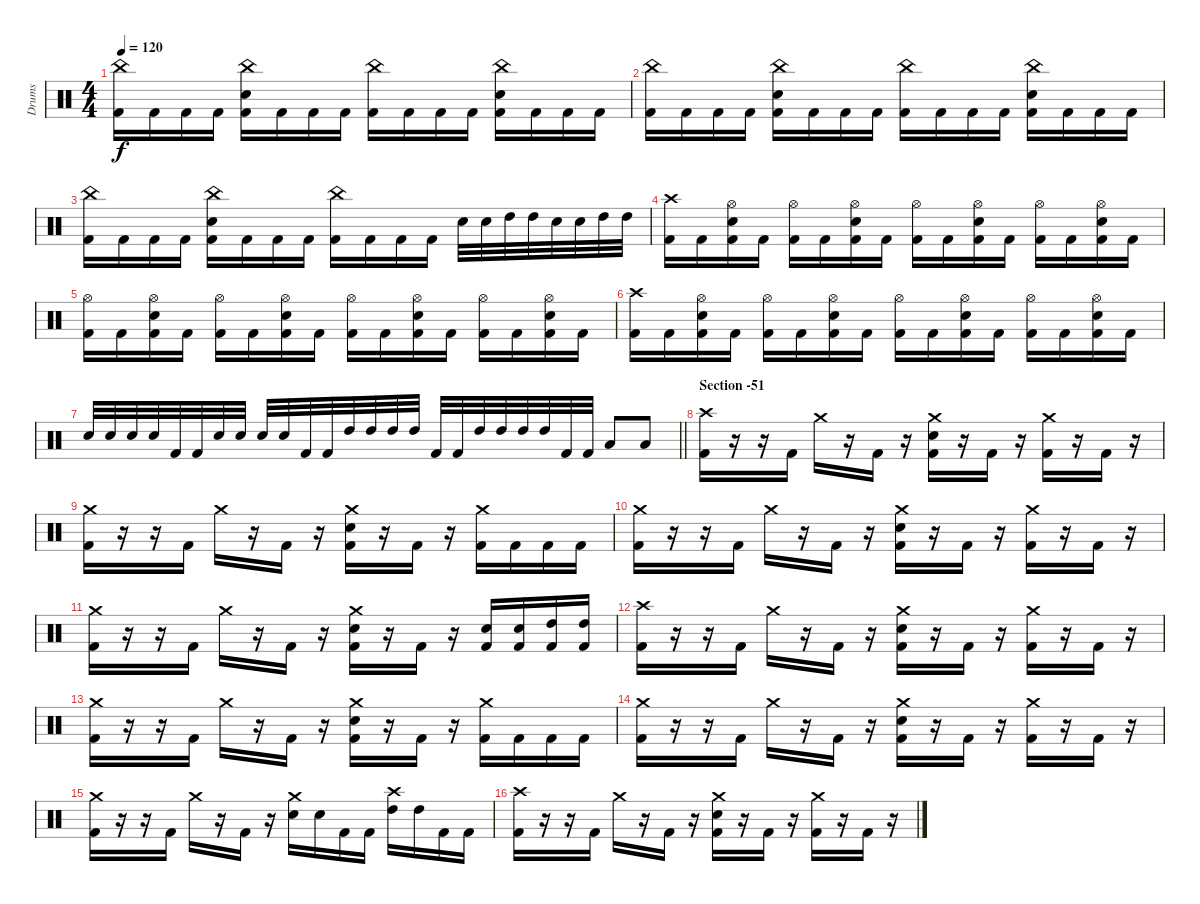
\track ("Drums" "Drums") {instrument percussion}
\staff {score}
\articulation defaults
\ts (4 4)
\tempo 120
\clef neutral
\ks c
("China (hit)" "Kick (hit) 2").16{dy f} "Kick (hit) 2".16 "Kick (hit) 2".16 "Kick (hit) 2".16 ("China (hit)" "Snare (hit) 2" "Kick (hit) 2").16 "Kick (hit) 2".16 "Kick (hit) 2".16 "Kick (hit) 2".16 ("China (hit)" "Kick (hit) 2").16 "Kick (hit) 2".16 "Kick (hit) 2".16 "Kick (hit) 2".16 ("China (hit)" "Snare (hit) 2" "Kick (hit) 2").16 "Kick (hit) 2".16 "Kick (hit) 2".16 "Kick (hit) 2".16 |
("China (hit)" "Kick (hit) 2").16 "Kick (hit) 2".16 "Kick (hit) 2".16 "Kick (hit) 2".16 ("China (hit)" "Snare (hit) 2" "Kick (hit) 2").16 "Kick (hit) 2".16 "Kick (hit) 2".16 "Kick (hit) 2".16 ("China (hit)" "Kick (hit) 2").16 "Kick (hit) 2".16 "Kick (hit) 2".16 "Kick (hit) 2".16 ("China (hit)" "Snare (hit) 2" "Kick (hit) 2").16 "Kick (hit) 2".16 "Kick (hit) 2".16 "Kick (hit) 2".16 |
("China (hit)" "Kick (hit) 2").16 "Kick (hit) 2".16 "Kick (hit) 2".16 "Kick (hit) 2".16 ("China (hit)" "Snare (hit) 2" "Kick (hit) 2").16 "Kick (hit) 2".16 "Kick (hit) 2".16 "Kick (hit) 2".16 ("China (hit)" "Kick (hit) 2").16 "Kick (hit) 2".16 "Kick (hit) 2".16 "Kick (hit) 2".16 "Snare (hit) 2".32 "Snare (hit) 2".32 "High Tom (hit)".32 "High Tom (hit)".32 "Snare (hit) 2".32 "Snare (hit) 2".32 "High Tom (hit)".32 "High Tom (hit)".32 |
("Crash high (hit)" "Kick (hit) 2").16 "Kick (hit) 2".16 ("Hi-Hat (open)" "Snare (hit) 2" "Kick (hit) 2").16 "Kick (hit) 2".16 ("Hi-Hat (open)" "Kick (hit) 2").16 "Kick (hit) 2".16 ("Hi-Hat (open)" "Snare (hit) 2" "Kick (hit) 2").16 "Kick (hit) 2".16 ("Hi-Hat (open)" "Kick (hit) 2").16 "Kick (hit) 2".16 ("Hi-Hat (open)" "Snare (hit) 2" "Kick (hit) 2").16 "Kick (hit) 2".16 ("Hi-Hat (open)" "Kick (hit) 2").16 "Kick (hit) 2".16 ("Hi-Hat (open)" "Snare (hit) 2" "Kick (hit) 2").16 "Kick (hit) 2".16 |
("Hi-Hat (open)" "Kick (hit) 2").16 "Kick (hit) 2".16 ("Hi-Hat (open)" "Snare (hit) 2" "Kick (hit) 2").16 "Kick (hit) 2".16 ("Hi-Hat (open)" "Kick (hit) 2").16 "Kick (hit) 2".16 ("Hi-Hat (open)" "Snare (hit) 2" "Kick (hit) 2").16 "Kick (hit) 2".16 ("Hi-Hat (open)" "Kick (hit) 2").16 "Kick (hit) 2".16 ("Hi-Hat (open)" "Snare (hit) 2" "Kick (hit) 2").16 "Kick (hit) 2".16 ("Hi-Hat (open)" "Kick (hit) 2").16 "Kick (hit) 2".16 ("Hi-Hat (open)" "Snare (hit) 2" "Kick (hit) 2").16 "Kick (hit) 2".16 |
("Crash high (hit)" "Kick (hit) 2").16 "Kick (hit) 2".16 ("Hi-Hat (open)" "Snare (hit) 2" "Kick (hit) 2").16 "Kick (hit) 2".16 ("Hi-Hat (open)" "Kick (hit) 2").16 "Kick (hit) 2".16 ("Hi-Hat (open)" "Snare (hit) 2" "Kick (hit) 2").16 "Kick (hit) 2".16 ("Hi-Hat (open)" "Kick (hit) 2").16 "Kick (hit) 2".16 ("Hi-Hat (open)" "Snare (hit) 2" "Kick (hit) 2").16 "Kick (hit) 2".16 ("Hi-Hat (open)" "Kick (hit) 2").16 "Kick (hit) 2".16 ("Hi-Hat (open)" "Snare (hit) 2" "Kick (hit) 2").16 "Kick (hit) 2".16 |
\barLineRight lightlight "Snare (hit) 2".32 "Snare (hit) 2".32 "Snare (hit) 2".32 "Snare (hit) 2".32 "Kick (hit) 2".32 "Kick (hit) 2".32 "Snare (hit) 2".32 "Snare (hit) 2".32 "Snare (hit) 2".32 "Snare (hit) 2".32 "Kick (hit) 2".32 "Kick (hit) 2".32 "High Tom (hit)".32 "High Tom (hit)".32 "High Tom (hit)".32 "High Tom (hit)".32 "Kick (hit) 2".32 "Kick (hit) 2".32 "High Tom (hit)".32 "High Tom (hit)".32 "High Tom (hit)".32 "High Tom (hit)".32 "Kick (hit) 2".32 "Kick (hit) 2".32 "Low Tom (hit)".8 "Low Tom (hit)".8
|
\section ("" "Section -51")
("Crash high (hit)" "Kick (hit) 2").16 r.16 r.16 "Kick (hit) 2".16 "Crash medium (hit)".16 r.16 "Kick (hit) 2".16 r.16 ("Crash medium (hit)" "Snare (hit) 2" "Kick (hit) 2").16 r.16 "Kick (hit) 2".16 r.16 ("Crash medium (hit)" "Kick (hit) 2").16 r.16 "Kick (hit) 2".16 r.16 |
("Crash medium (hit)" "Kick (hit) 2").16 r.16 r.16 "Kick (hit) 2".16 "Crash medium (hit)".16 r.16 "Kick (hit) 2".16 r.16 ("Crash medium (hit)" "Snare (hit) 2" "Kick (hit) 2").16 r.16 "Kick (hit) 2".16 r.16 ("Crash medium (hit)" "Kick (hit) 2").16 "Kick (hit) 2".16 "Kick (hit) 2".16 "Kick (hit) 2".16 |
("Crash medium (hit)" "Kick (hit) 2").16 r.16 r.16 "Kick (hit) 2".16 "Crash medium (hit)".16 r.16 "Kick (hit) 2".16 r.16 ("Crash medium (hit)" "Snare (hit) 2" "Kick (hit) 2").16 r.16 "Kick (hit) 2".16 r.16 ("Crash medium (hit)" "Kick (hit) 2").16 r.16 "Kick (hit) 2".16 r.16 |
("Crash medium (hit)" "Kick (hit) 2").16 r.16 r.16 "Kick (hit) 2".16 "Crash medium (hit)".16 r.16 "Kick (hit) 2".16 r.16 ("Crash medium (hit)" "Snare (hit) 2" "Kick (hit) 2").16 r.16 "Kick (hit) 2".16 r.16 ("Snare (hit) 2" "Kick (hit) 2").16 ("Snare (hit) 2" "Kick (hit) 2").16 ("High Tom (hit)" "Kick (hit) 2").16 ("High Tom (hit)" "Kick (hit) 2").16 |
("Crash high (hit)" "Kick (hit) 2").16 r.16 r.16 "Kick (hit) 2".16 "Crash medium (hit)".16 r.16 "Kick (hit) 2".16 r.16 ("Crash medium (hit)" "Snare (hit) 2" "Kick (hit) 2").16 r.16 "Kick (hit) 2".16 r.16 ("Crash medium (hit)" "Kick (hit) 2").16 r.16 "Kick (hit) 2".16 r.16 |
("Crash medium (hit)" "Kick (hit) 2").16 r.16 r.16 "Kick (hit) 2".16 "Crash medium (hit)".16 r.16 "Kick (hit) 2".16 r.16 ("Crash medium (hit)" "Snare (hit) 2" "Kick (hit) 2").16 r.16 "Kick (hit) 2".16 r.16 ("Crash medium (hit)" "Kick (hit) 2").16 "Kick (hit) 2".16 "Kick (hit) 2".16 "Kick (hit) 2".16 |
("Crash medium (hit)" "Kick (hit) 2").16 r.16 r.16 "Kick (hit) 2".16 "Crash medium (hit)".16 r.16 "Kick (hit) 2".16 r.16 ("Crash medium (hit)" "Snare (hit) 2" "Kick (hit) 2").16 r.16 "Kick (hit) 2".16 r.16 ("Crash medium (hit)" "Kick (hit) 2").16 r.16 "Kick (hit) 2".16 r.16 |
("Crash medium (hit)" "Kick (hit) 2").16 r.16 r.16 "Kick (hit) 2".16 "Crash medium (hit)".16 r.16 "Kick (hit) 2".16 r.16 ("Crash medium (hit)" "Snare (hit) 2").16 "Snare (hit) 2".16 "Kick (hit) 2".16 "Kick (hit) 2".16 ("Crash high (hit)" "High Tom (hit)").16 "High Tom (hit)".16 "Kick (hit) 2".16 "Kick (hit) 2".16 |
("Crash high (hit)" "Kick (hit) 2").16 r.16 r.16 "Kick (hit) 2".16 "Crash medium (hit)".16 r.16 "Kick (hit) 2".16 r.16 ("Crash medium (hit)" "Snare (hit) 2" "Kick (hit) 2").16 r.16 "Kick (hit) 2".16 r.16 ("Crash medium (hit)" "Kick (hit) 2").16 r.16 "Kick (hit) 2".16 r.16
